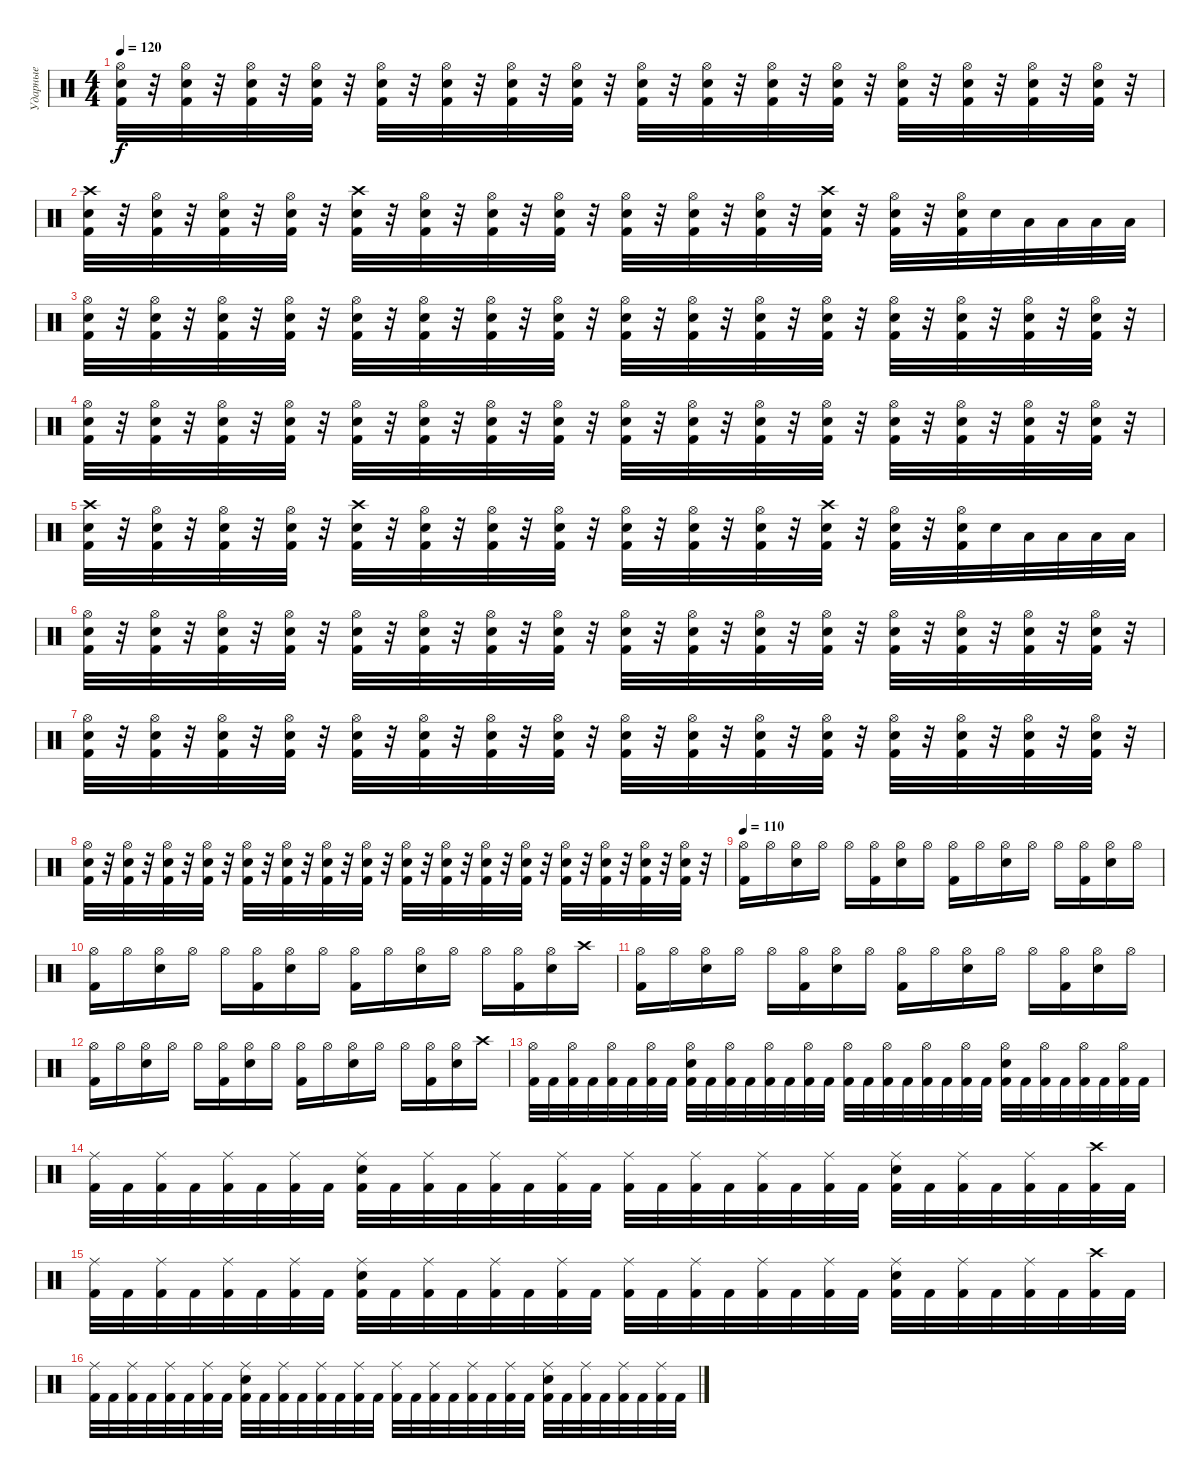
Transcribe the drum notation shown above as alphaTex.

\track ("Ударные" "Ударные") {instrument percussion}
\staff {score}
\articulation defaults
\ts (4 4)
\tempo 120
\clef neutral
\ks c
("Snare (hit) 2" "Kick (hit) 2" "Hi-Hat (open)").32{dy f} r.32 ("Snare (hit) 2" "Kick (hit) 2" "Hi-Hat (open)").32 r.32 ("Snare (hit) 2" "Kick (hit) 2" "Hi-Hat (open)").32 r.32 ("Snare (hit) 2" "Kick (hit) 2" "Hi-Hat (open)").32 r.32 ("Snare (hit) 2" "Kick (hit) 2" "Hi-Hat (open)").32 r.32 ("Snare (hit) 2" "Kick (hit) 2" "Hi-Hat (open)").32 r.32 ("Snare (hit) 2" "Kick (hit) 2" "Hi-Hat (open)").32 r.32 ("Snare (hit) 2" "Kick (hit) 2" "Hi-Hat (open)").32 r.32 ("Snare (hit) 2" "Kick (hit) 2" "Hi-Hat (open)").32 r.32 ("Snare (hit) 2" "Kick (hit) 2" "Hi-Hat (open)").32 r.32 ("Snare (hit) 2" "Kick (hit) 2" "Hi-Hat (open)").32 r.32 ("Snare (hit) 2" "Kick (hit) 2" "Hi-Hat (open)").32 r.32 ("Snare (hit) 2" "Kick (hit) 2" "Hi-Hat (open)").32 r.32 ("Snare (hit) 2" "Kick (hit) 2" "Hi-Hat (open)").32 r.32 ("Snare (hit) 2" "Kick (hit) 2" "Hi-Hat (open)").32 r.32 ("Snare (hit) 2" "Kick (hit) 2" "Hi-Hat (open)").32 r.32 |
("Snare (hit) 2" "Kick (hit) 2" "Crash high (hit)").32 r.32 ("Snare (hit) 2" "Kick (hit) 2" "Hi-Hat (open)").32 r.32 ("Snare (hit) 2" "Kick (hit) 2" "Hi-Hat (open)").32 r.32 ("Snare (hit) 2" "Kick (hit) 2" "Hi-Hat (open)").32 r.32 ("Snare (hit) 2" "Kick (hit) 2" "Crash high (hit)").32 r.32 ("Snare (hit) 2" "Kick (hit) 2" "Hi-Hat (open)").32 r.32 ("Snare (hit) 2" "Kick (hit) 2" "Hi-Hat (open)").32 r.32 ("Snare (hit) 2" "Kick (hit) 2" "Hi-Hat (open)").32 r.32 ("Snare (hit) 2" "Kick (hit) 2" "Hi-Hat (open)").32 r.32 ("Snare (hit) 2" "Kick (hit) 2" "Hi-Hat (open)").32 r.32 ("Snare (hit) 2" "Kick (hit) 2" "Hi-Hat (open)").32 r.32 ("Snare (hit) 2" "Kick (hit) 2" "Crash high (hit)").32 r.32 ("Snare (hit) 2" "Kick (hit) 2" "Hi-Hat (open)").32 r.32 ("Snare (hit) 2" "Kick (hit) 2" "Hi-Hat (open)").32 "Snare (hit) 2".32 "Low Tom (hit)".32 "Low Tom (hit)".32 "Low Tom (hit)".32 "Low Tom (hit)".32 |
("Snare (hit) 2" "Kick (hit) 2" "Hi-Hat (open)").32 r.32 ("Snare (hit) 2" "Kick (hit) 2" "Hi-Hat (open)").32 r.32 ("Snare (hit) 2" "Kick (hit) 2" "Hi-Hat (open)").32 r.32 ("Snare (hit) 2" "Kick (hit) 2" "Hi-Hat (open)").32 r.32 ("Snare (hit) 2" "Kick (hit) 2" "Hi-Hat (open)").32 r.32 ("Snare (hit) 2" "Kick (hit) 2" "Hi-Hat (open)").32 r.32 ("Snare (hit) 2" "Kick (hit) 2" "Hi-Hat (open)").32 r.32 ("Snare (hit) 2" "Kick (hit) 2" "Hi-Hat (open)").32 r.32 ("Snare (hit) 2" "Kick (hit) 2" "Hi-Hat (open)").32 r.32 ("Snare (hit) 2" "Kick (hit) 2" "Hi-Hat (open)").32 r.32 ("Snare (hit) 2" "Kick (hit) 2" "Hi-Hat (open)").32 r.32 ("Snare (hit) 2" "Kick (hit) 2" "Hi-Hat (open)").32 r.32 ("Snare (hit) 2" "Kick (hit) 2" "Hi-Hat (open)").32 r.32 ("Snare (hit) 2" "Kick (hit) 2" "Hi-Hat (open)").32 r.32 ("Snare (hit) 2" "Kick (hit) 2" "Hi-Hat (open)").32 r.32 ("Snare (hit) 2" "Kick (hit) 2" "Hi-Hat (open)").32 r.32 |
("Snare (hit) 2" "Kick (hit) 2" "Hi-Hat (open)").32 r.32 ("Snare (hit) 2" "Kick (hit) 2" "Hi-Hat (open)").32 r.32 ("Snare (hit) 2" "Kick (hit) 2" "Hi-Hat (open)").32 r.32 ("Snare (hit) 2" "Kick (hit) 2" "Hi-Hat (open)").32 r.32 ("Snare (hit) 2" "Kick (hit) 2" "Hi-Hat (open)").32 r.32 ("Snare (hit) 2" "Kick (hit) 2" "Hi-Hat (open)").32 r.32 ("Snare (hit) 2" "Kick (hit) 2" "Hi-Hat (open)").32 r.32 ("Snare (hit) 2" "Kick (hit) 2" "Hi-Hat (open)").32 r.32 ("Snare (hit) 2" "Kick (hit) 2" "Hi-Hat (open)").32 r.32 ("Snare (hit) 2" "Kick (hit) 2" "Hi-Hat (open)").32 r.32 ("Snare (hit) 2" "Kick (hit) 2" "Hi-Hat (open)").32 r.32 ("Snare (hit) 2" "Kick (hit) 2" "Hi-Hat (open)").32 r.32 ("Snare (hit) 2" "Kick (hit) 2" "Hi-Hat (open)").32 r.32 ("Snare (hit) 2" "Kick (hit) 2" "Hi-Hat (open)").32 r.32 ("Snare (hit) 2" "Kick (hit) 2" "Hi-Hat (open)").32 r.32 ("Snare (hit) 2" "Kick (hit) 2" "Hi-Hat (open)").32 r.32 |
("Snare (hit) 2" "Kick (hit) 2" "Crash high (hit)").32 r.32 ("Snare (hit) 2" "Kick (hit) 2" "Hi-Hat (open)").32 r.32 ("Snare (hit) 2" "Kick (hit) 2" "Hi-Hat (open)").32 r.32 ("Snare (hit) 2" "Kick (hit) 2" "Hi-Hat (open)").32 r.32 ("Snare (hit) 2" "Kick (hit) 2" "Crash high (hit)").32 r.32 ("Snare (hit) 2" "Kick (hit) 2" "Hi-Hat (open)").32 r.32 ("Snare (hit) 2" "Kick (hit) 2" "Hi-Hat (open)").32 r.32 ("Snare (hit) 2" "Kick (hit) 2" "Hi-Hat (open)").32 r.32 ("Snare (hit) 2" "Kick (hit) 2" "Hi-Hat (open)").32 r.32 ("Snare (hit) 2" "Kick (hit) 2" "Hi-Hat (open)").32 r.32 ("Snare (hit) 2" "Kick (hit) 2" "Hi-Hat (open)").32 r.32 ("Snare (hit) 2" "Kick (hit) 2" "Crash high (hit)").32 r.32 ("Snare (hit) 2" "Kick (hit) 2" "Hi-Hat (open)").32 r.32 ("Snare (hit) 2" "Kick (hit) 2" "Hi-Hat (open)").32 "Snare (hit) 2".32 "Low Tom (hit)".32 "Low Tom (hit)".32 "Low Tom (hit)".32 "Low Tom (hit)".32 |
("Snare (hit) 2" "Kick (hit) 2" "Hi-Hat (open)").32 r.32 ("Snare (hit) 2" "Kick (hit) 2" "Hi-Hat (open)").32 r.32 ("Snare (hit) 2" "Kick (hit) 2" "Hi-Hat (open)").32 r.32 ("Snare (hit) 2" "Kick (hit) 2" "Hi-Hat (open)").32 r.32 ("Snare (hit) 2" "Kick (hit) 2" "Hi-Hat (open)").32 r.32 ("Snare (hit) 2" "Kick (hit) 2" "Hi-Hat (open)").32 r.32 ("Snare (hit) 2" "Kick (hit) 2" "Hi-Hat (open)").32 r.32 ("Snare (hit) 2" "Kick (hit) 2" "Hi-Hat (open)").32 r.32 ("Snare (hit) 2" "Kick (hit) 2" "Hi-Hat (open)").32 r.32 ("Snare (hit) 2" "Kick (hit) 2" "Hi-Hat (open)").32 r.32 ("Snare (hit) 2" "Kick (hit) 2" "Hi-Hat (open)").32 r.32 ("Snare (hit) 2" "Kick (hit) 2" "Hi-Hat (open)").32 r.32 ("Snare (hit) 2" "Kick (hit) 2" "Hi-Hat (open)").32 r.32 ("Snare (hit) 2" "Kick (hit) 2" "Hi-Hat (open)").32 r.32 ("Snare (hit) 2" "Kick (hit) 2" "Hi-Hat (open)").32 r.32 ("Snare (hit) 2" "Kick (hit) 2" "Hi-Hat (open)").32 r.32 |
("Snare (hit) 2" "Kick (hit) 2" "Hi-Hat (open)").32 r.32 ("Snare (hit) 2" "Kick (hit) 2" "Hi-Hat (open)").32 r.32 ("Snare (hit) 2" "Kick (hit) 2" "Hi-Hat (open)").32 r.32 ("Snare (hit) 2" "Kick (hit) 2" "Hi-Hat (open)").32 r.32 ("Snare (hit) 2" "Kick (hit) 2" "Hi-Hat (open)").32 r.32 ("Snare (hit) 2" "Kick (hit) 2" "Hi-Hat (open)").32 r.32 ("Snare (hit) 2" "Kick (hit) 2" "Hi-Hat (open)").32 r.32 ("Snare (hit) 2" "Kick (hit) 2" "Hi-Hat (open)").32 r.32 ("Snare (hit) 2" "Kick (hit) 2" "Hi-Hat (open)").32 r.32 ("Snare (hit) 2" "Kick (hit) 2" "Hi-Hat (open)").32 r.32 ("Snare (hit) 2" "Kick (hit) 2" "Hi-Hat (open)").32 r.32 ("Snare (hit) 2" "Kick (hit) 2" "Hi-Hat (open)").32 r.32 ("Snare (hit) 2" "Kick (hit) 2" "Hi-Hat (open)").32 r.32 ("Snare (hit) 2" "Kick (hit) 2" "Hi-Hat (open)").32 r.32 ("Snare (hit) 2" "Kick (hit) 2" "Hi-Hat (open)").32 r.32 ("Snare (hit) 2" "Kick (hit) 2" "Hi-Hat (open)").32 r.32 |
("Snare (hit) 2" "Kick (hit) 2" "Hi-Hat (open)").32 r.32 ("Snare (hit) 2" "Kick (hit) 2" "Hi-Hat (open)").32 r.32 ("Snare (hit) 2" "Kick (hit) 2" "Hi-Hat (open)").32 r.32 ("Snare (hit) 2" "Kick (hit) 2" "Hi-Hat (open)").32 r.32 ("Snare (hit) 2" "Kick (hit) 2" "Hi-Hat (open)").32 r.32 ("Snare (hit) 2" "Kick (hit) 2" "Hi-Hat (open)").32 r.32 ("Snare (hit) 2" "Kick (hit) 2" "Hi-Hat (open)").32 r.32 ("Snare (hit) 2" "Kick (hit) 2" "Hi-Hat (open)").32 r.32 ("Snare (hit) 2" "Kick (hit) 2" "Hi-Hat (open)").32 r.32 ("Snare (hit) 2" "Kick (hit) 2" "Hi-Hat (open)").32 r.32 ("Snare (hit) 2" "Kick (hit) 2" "Hi-Hat (open)").32 r.32 ("Snare (hit) 2" "Kick (hit) 2" "Hi-Hat (open)").32 r.32 ("Snare (hit) 2" "Kick (hit) 2" "Hi-Hat (open)").32 r.32 ("Snare (hit) 2" "Kick (hit) 2" "Hi-Hat (open)").32 r.32 ("Snare (hit) 2" "Kick (hit) 2" "Hi-Hat (open)").32 r.32 ("Snare (hit) 2" "Kick (hit) 2" "Hi-Hat (open)").32 r.32 |
\tempo 110
("Hi-Hat (open)" "Kick (hit) 2").16 "Hi-Hat (open)".16 ("Hi-Hat (open)" "Snare (hit) 2").16 "Hi-Hat (open)".16 "Hi-Hat (open)".16 ("Hi-Hat (open)" "Kick (hit) 2").16 ("Hi-Hat (open)" "Snare (hit) 2").16 "Hi-Hat (open)".16 ("Hi-Hat (open)" "Kick (hit) 2").16 "Hi-Hat (open)".16 ("Hi-Hat (open)" "Snare (hit) 2").16 "Hi-Hat (open)".16 "Hi-Hat (open)".16 ("Hi-Hat (open)" "Kick (hit) 2").16 ("Hi-Hat (open)" "Snare (hit) 2").16 "Hi-Hat (open)".16 |
("Hi-Hat (open)" "Kick (hit) 2").16 "Hi-Hat (open)".16 ("Hi-Hat (open)" "Snare (hit) 2").16 "Hi-Hat (open)".16 "Hi-Hat (open)".16 ("Hi-Hat (open)" "Kick (hit) 2").16 ("Hi-Hat (open)" "Snare (hit) 2").16 "Hi-Hat (open)".16 ("Hi-Hat (open)" "Kick (hit) 2").16 "Hi-Hat (open)".16 ("Hi-Hat (open)" "Snare (hit) 2").16 "Hi-Hat (open)".16 "Hi-Hat (open)".16 ("Hi-Hat (open)" "Kick (hit) 2").16 ("Hi-Hat (open)" "Snare (hit) 2").16 "Crash high (hit)".16 |
("Hi-Hat (open)" "Kick (hit) 2").16 "Hi-Hat (open)".16 ("Hi-Hat (open)" "Snare (hit) 2").16 "Hi-Hat (open)".16 "Hi-Hat (open)".16 ("Hi-Hat (open)" "Kick (hit) 2").16 ("Hi-Hat (open)" "Snare (hit) 2").16 "Hi-Hat (open)".16 ("Hi-Hat (open)" "Kick (hit) 2").16 "Hi-Hat (open)".16 ("Hi-Hat (open)" "Snare (hit) 2").16 "Hi-Hat (open)".16 "Hi-Hat (open)".16 ("Hi-Hat (open)" "Kick (hit) 2").16 ("Hi-Hat (open)" "Snare (hit) 2").16 "Hi-Hat (open)".16 |
("Hi-Hat (open)" "Kick (hit) 2").16 "Hi-Hat (open)".16 ("Hi-Hat (open)" "Snare (hit) 2").16 "Hi-Hat (open)".16 "Hi-Hat (open)".16 ("Hi-Hat (open)" "Kick (hit) 2").16 ("Hi-Hat (open)" "Snare (hit) 2").16 "Hi-Hat (open)".16 ("Hi-Hat (open)" "Kick (hit) 2").16 "Hi-Hat (open)".16 ("Hi-Hat (open)" "Snare (hit) 2").16 "Hi-Hat (open)".16 "Hi-Hat (open)".16 ("Hi-Hat (open)" "Kick (hit) 2").16 ("Hi-Hat (open)" "Snare (hit) 2").16 "Crash high (hit)".16 |
("Kick (hit) 2" "Hi-Hat (open)").32 "Kick (hit) 2".32 ("Kick (hit) 2" "Hi-Hat (open)").32 "Kick (hit) 2".32 ("Kick (hit) 2" "Hi-Hat (open)").32 "Kick (hit) 2".32 ("Kick (hit) 2" "Hi-Hat (open)").32 "Kick (hit) 2".32 ("Kick (hit) 2" "Hi-Hat (open)" "Snare (hit) 2").32 "Kick (hit) 2".32 ("Kick (hit) 2" "Hi-Hat (open)").32 "Kick (hit) 2".32 ("Kick (hit) 2" "Hi-Hat (open)").32 "Kick (hit) 2".32 ("Kick (hit) 2" "Hi-Hat (open)").32 "Kick (hit) 2".32 ("Kick (hit) 2" "Hi-Hat (open)").32 "Kick (hit) 2".32 ("Kick (hit) 2" "Hi-Hat (open)").32 "Kick (hit) 2".32 ("Kick (hit) 2" "Hi-Hat (open)").32 "Kick (hit) 2".32 ("Kick (hit) 2" "Hi-Hat (open)").32 "Kick (hit) 2".32 ("Kick (hit) 2" "Hi-Hat (open)" "Snare (hit) 2").32 "Kick (hit) 2".32 ("Kick (hit) 2" "Hi-Hat (open)").32 "Kick (hit) 2".32 ("Kick (hit) 2" "Hi-Hat (open)").32 "Kick (hit) 2".32 ("Kick (hit) 2" "Hi-Hat (open)").32 "Kick (hit) 2".32 |
("Kick (hit) 2" "Ride (middle)").32 "Kick (hit) 2".32 ("Kick (hit) 2" "Ride (middle)").32 "Kick (hit) 2".32 ("Kick (hit) 2" "Ride (middle)").32 "Kick (hit) 2".32 ("Kick (hit) 2" "Ride (middle)").32 "Kick (hit) 2".32 ("Kick (hit) 2" "Ride (middle)" "Snare (hit) 2").32 "Kick (hit) 2".32 ("Kick (hit) 2" "Ride (middle)").32 "Kick (hit) 2".32 ("Kick (hit) 2" "Ride (middle)").32 "Kick (hit) 2".32 ("Kick (hit) 2" "Ride (middle)").32 "Kick (hit) 2".32 ("Kick (hit) 2" "Ride (middle)").32 "Kick (hit) 2".32 ("Kick (hit) 2" "Ride (middle)").32 "Kick (hit) 2".32 ("Kick (hit) 2" "Ride (middle)").32 "Kick (hit) 2".32 ("Kick (hit) 2" "Ride (middle)").32 "Kick (hit) 2".32 ("Kick (hit) 2" "Ride (middle)" "Snare (hit) 2").32 "Kick (hit) 2".32 ("Kick (hit) 2" "Ride (middle)").32 "Kick (hit) 2".32 ("Kick (hit) 2" "Ride (middle)").32 "Kick (hit) 2".32 ("Kick (hit) 2" "Crash high (hit)").32 "Kick (hit) 2".32 |
("Kick (hit) 2" "Ride (middle)").32 "Kick (hit) 2".32 ("Kick (hit) 2" "Ride (middle)").32 "Kick (hit) 2".32 ("Kick (hit) 2" "Ride (middle)").32 "Kick (hit) 2".32 ("Kick (hit) 2" "Ride (middle)").32 "Kick (hit) 2".32 ("Kick (hit) 2" "Ride (middle)" "Snare (hit) 2").32 "Kick (hit) 2".32 ("Kick (hit) 2" "Ride (middle)").32 "Kick (hit) 2".32 ("Kick (hit) 2" "Ride (middle)").32 "Kick (hit) 2".32 ("Kick (hit) 2" "Ride (middle)").32 "Kick (hit) 2".32 ("Kick (hit) 2" "Ride (middle)").32 "Kick (hit) 2".32 ("Kick (hit) 2" "Ride (middle)").32 "Kick (hit) 2".32 ("Kick (hit) 2" "Ride (middle)").32 "Kick (hit) 2".32 ("Kick (hit) 2" "Ride (middle)").32 "Kick (hit) 2".32 ("Kick (hit) 2" "Ride (middle)" "Snare (hit) 2").32 "Kick (hit) 2".32 ("Kick (hit) 2" "Ride (middle)").32 "Kick (hit) 2".32 ("Kick (hit) 2" "Ride (middle)").32 "Kick (hit) 2".32 ("Kick (hit) 2" "Crash high (hit)").32 "Kick (hit) 2".32 |
("Kick (hit) 2" "Ride (middle)").32 "Kick (hit) 2".32 ("Kick (hit) 2" "Ride (middle)").32 "Kick (hit) 2".32 ("Kick (hit) 2" "Ride (middle)").32 "Kick (hit) 2".32 ("Kick (hit) 2" "Ride (middle)").32 "Kick (hit) 2".32 ("Kick (hit) 2" "Ride (middle)" "Snare (hit) 2").32 "Kick (hit) 2".32 ("Kick (hit) 2" "Ride (middle)").32 "Kick (hit) 2".32 ("Kick (hit) 2" "Ride (middle)").32 "Kick (hit) 2".32 ("Kick (hit) 2" "Ride (middle)").32 "Kick (hit) 2".32 ("Kick (hit) 2" "Ride (middle)").32 "Kick (hit) 2".32 ("Kick (hit) 2" "Ride (middle)").32 "Kick (hit) 2".32 ("Kick (hit) 2" "Ride (middle)").32 "Kick (hit) 2".32 ("Kick (hit) 2" "Ride (middle)").32 "Kick (hit) 2".32 ("Kick (hit) 2" "Ride (middle)" "Snare (hit) 2").32 "Kick (hit) 2".32 ("Kick (hit) 2" "Ride (middle)").32 "Kick (hit) 2".32 ("Kick (hit) 2" "Ride (middle)").32 "Kick (hit) 2".32 ("Kick (hit) 2" "Ride (middle)").32 "Kick (hit) 2".32
